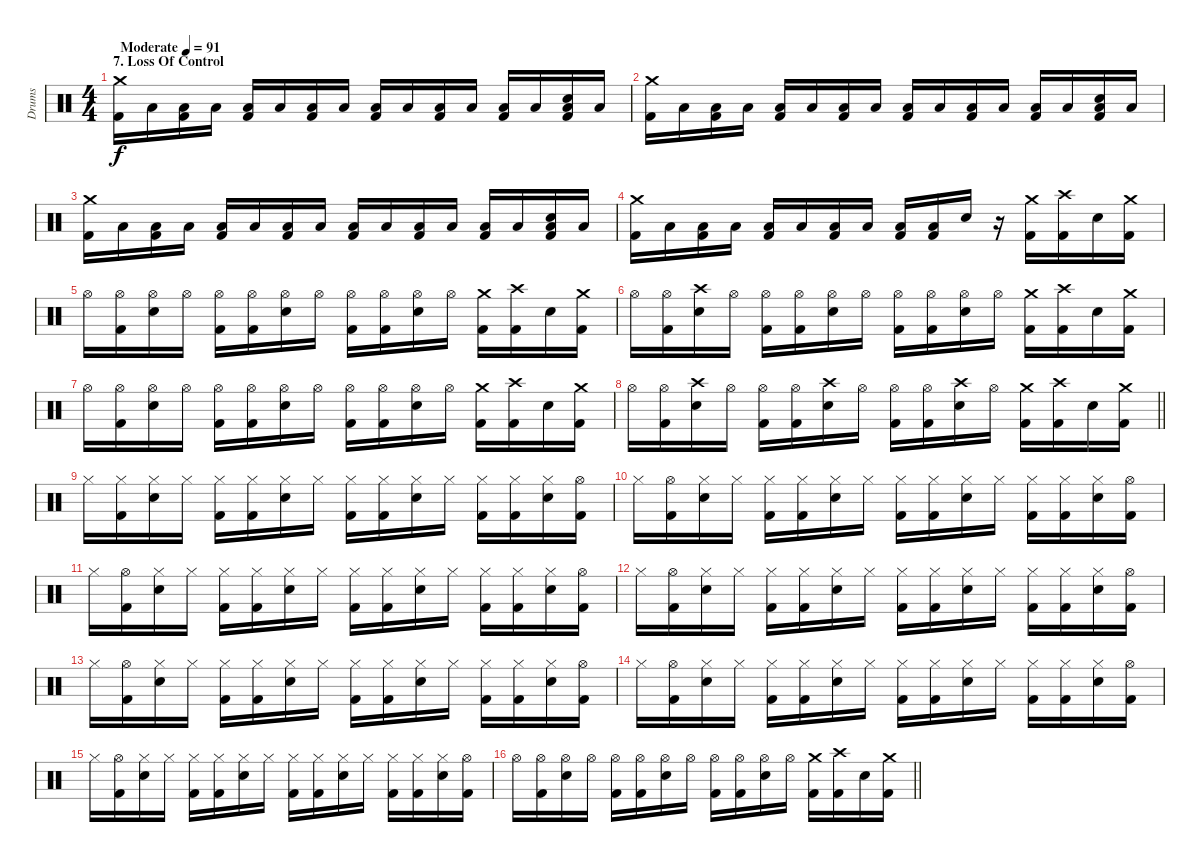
\track ("Drums" "Drums") {instrument percussion}
\staff {score}
\articulation defaults
\ts (4 4)
\section ("" "7. Loss Of Control")
\tempo (91 "Moderate")
\clef neutral
\ks c
("Crash medium (hit)" "Kick (hit) 2").16{dy f} "Low Floor Tom (hit)".16 ("Low Floor Tom (hit)" "Kick (hit) 2").16 "Low Floor Tom (hit)".16 ("Low Floor Tom (hit)" "Kick (hit) 2").16 "Low Floor Tom (hit)".16 ("Low Floor Tom (hit)" "Kick (hit) 2").16 "Low Floor Tom (hit)".16 ("Low Floor Tom (hit)" "Kick (hit) 2").16 "Low Floor Tom (hit)".16 ("Low Floor Tom (hit)" "Kick (hit) 2").16 "Low Floor Tom (hit)".16 ("Low Floor Tom (hit)" "Kick (hit) 2").16 "Low Floor Tom (hit)".16 ("Electric Snare (hit)" "Low Floor Tom (hit)" "Kick (hit) 2").16 "Low Floor Tom (hit)".16 |
("Crash medium (hit)" "Kick (hit) 2").16 "Low Floor Tom (hit)".16 ("Low Floor Tom (hit)" "Kick (hit) 2").16 "Low Floor Tom (hit)".16 ("Low Floor Tom (hit)" "Kick (hit) 2").16 "Low Floor Tom (hit)".16 ("Low Floor Tom (hit)" "Kick (hit) 2").16 "Low Floor Tom (hit)".16 ("Low Floor Tom (hit)" "Kick (hit) 2").16 "Low Floor Tom (hit)".16 ("Low Floor Tom (hit)" "Kick (hit) 2").16 "Low Floor Tom (hit)".16 ("Low Floor Tom (hit)" "Kick (hit) 2").16 "Low Floor Tom (hit)".16 ("Electric Snare (hit)" "Low Floor Tom (hit)" "Kick (hit) 2").16 "Low Floor Tom (hit)".16 |
("Crash medium (hit)" "Kick (hit) 2").16 "Low Floor Tom (hit)".16 ("Low Floor Tom (hit)" "Kick (hit) 2").16 "Low Floor Tom (hit)".16 ("Low Floor Tom (hit)" "Kick (hit) 2").16 "Low Floor Tom (hit)".16 ("Low Floor Tom (hit)" "Kick (hit) 2").16 "Low Floor Tom (hit)".16 ("Low Floor Tom (hit)" "Kick (hit) 2").16 "Low Floor Tom (hit)".16 ("Low Floor Tom (hit)" "Kick (hit) 2").16 "Low Floor Tom (hit)".16 ("Low Floor Tom (hit)" "Kick (hit) 2").16 "Low Floor Tom (hit)".16 ("Electric Snare (hit)" "Low Floor Tom (hit)" "Kick (hit) 2").16 "Low Floor Tom (hit)".16 |
("Crash medium (hit)" "Kick (hit) 2").16 "Low Floor Tom (hit)".16 ("Low Floor Tom (hit)" "Kick (hit) 2").16 "Low Floor Tom (hit)".16 ("Low Floor Tom (hit)" "Kick (hit) 2").16 "Low Floor Tom (hit)".16 ("Low Floor Tom (hit)" "Kick (hit) 2").16 "Low Floor Tom (hit)".16 ("Low Floor Tom (hit)" "Kick (hit) 2").16 ("Low Floor Tom (hit)" "Kick (hit) 2").16 "Electric Snare (hit)".16 r.16 ("Crash medium (hit)" "Kick (hit) 2").16 ("Crash high (hit)" "Kick (hit) 2").16 "Electric Snare (hit)".16 ("Crash medium (hit)" "Kick (hit) 2").16 |
"Hi-Hat (open)".16 ("Hi-Hat (open)" "Kick (hit) 2").16 ("Hi-Hat (open)" "Electric Snare (hit)").16 "Hi-Hat (open)".16 ("Hi-Hat (open)" "Kick (hit) 2").16 ("Hi-Hat (open)" "Kick (hit) 2").16 ("Hi-Hat (open)" "Electric Snare (hit)").16 "Hi-Hat (open)".16 ("Hi-Hat (open)" "Kick (hit) 2").16 ("Hi-Hat (open)" "Kick (hit) 2").16 ("Hi-Hat (open)" "Electric Snare (hit)").16 "Hi-Hat (open)".16 ("Crash medium (hit)" "Kick (hit) 2").16 ("Crash high (hit)" "Kick (hit) 2").16 "Electric Snare (hit)".16 ("Crash medium (hit)" "Kick (hit) 2").16 |
"Hi-Hat (open)".16 ("Hi-Hat (open)" "Kick (hit) 2").16 ("Crash high (hit)" "Electric Snare (hit)").16 "Hi-Hat (open)".16 ("Hi-Hat (open)" "Kick (hit) 2").16 ("Hi-Hat (open)" "Kick (hit) 2").16 ("Hi-Hat (open)" "Electric Snare (hit)").16 "Hi-Hat (open)".16 ("Hi-Hat (open)" "Kick (hit) 2").16 ("Hi-Hat (open)" "Kick (hit) 2").16 ("Hi-Hat (open)" "Electric Snare (hit)").16 "Hi-Hat (open)".16 ("Crash medium (hit)" "Kick (hit) 2").16 ("Crash high (hit)" "Kick (hit) 2").16 "Electric Snare (hit)".16 ("Crash medium (hit)" "Kick (hit) 2").16 |
"Hi-Hat (open)".16 ("Hi-Hat (open)" "Kick (hit) 2").16 ("Hi-Hat (open)" "Electric Snare (hit)").16 "Hi-Hat (open)".16 ("Hi-Hat (open)" "Kick (hit) 2").16 ("Hi-Hat (open)" "Kick (hit) 2").16 ("Hi-Hat (open)" "Electric Snare (hit)").16 "Hi-Hat (open)".16 ("Hi-Hat (open)" "Kick (hit) 2").16 ("Hi-Hat (open)" "Kick (hit) 2").16 ("Hi-Hat (open)" "Electric Snare (hit)").16 "Hi-Hat (open)".16 ("Crash medium (hit)" "Kick (hit) 2").16 ("Crash high (hit)" "Kick (hit) 2").16 "Electric Snare (hit)".16 ("Crash medium (hit)" "Kick (hit) 2").16 |
\barLineRight lightlight "Hi-Hat (open)".16
("Hi-Hat (open)" "Kick (hit) 2").16 ("Crash high (hit)" "Electric Snare (hit)").16 "Hi-Hat (open)".16 ("Hi-Hat (open)" "Kick (hit) 2").16 ("Hi-Hat (open)" "Kick (hit) 2").16 ("Crash high (hit)" "Electric Snare (hit)").16 "Hi-Hat (open)".16 ("Hi-Hat (open)" "Kick (hit) 2").16 ("Hi-Hat (open)" "Kick (hit) 2").16 ("Crash high (hit)" "Electric Snare (hit)").16 "Hi-Hat (open)".16 ("Crash medium (hit)" "Kick (hit) 2").16 ("Crash high (hit)" "Kick (hit) 2").16 "Electric Snare (hit)".16 ("Crash medium (hit)" "Kick (hit) 2").16 |
"Hi-Hat (closed)".16 ("Hi-Hat (closed)" "Kick (hit) 2").16 ("Hi-Hat (closed)" "Electric Snare (hit)").16 "Hi-Hat (closed)".16 ("Hi-Hat (closed)" "Kick (hit) 2").16 ("Hi-Hat (closed)" "Kick (hit) 2").16 ("Hi-Hat (closed)" "Electric Snare (hit)").16 "Hi-Hat (closed)".16 ("Hi-Hat (closed)" "Kick (hit) 2").16 ("Hi-Hat (closed)" "Kick (hit) 2").16 ("Hi-Hat (closed)" "Electric Snare (hit)").16 "Hi-Hat (closed)".16 ("Hi-Hat (closed)" "Kick (hit) 2").16 ("Hi-Hat (closed)" "Kick (hit) 2").16 ("Hi-Hat (closed)" "Electric Snare (hit)").16 ("Hi-Hat (open)" "Kick (hit) 2").16 |
"Hi-Hat (closed)".16 ("Hi-Hat (open)" "Kick (hit) 2").16 ("Hi-Hat (closed)" "Electric Snare (hit)").16 "Hi-Hat (closed)".16 ("Hi-Hat (closed)" "Kick (hit) 2").16 ("Hi-Hat (closed)" "Kick (hit) 2").16 ("Hi-Hat (closed)" "Electric Snare (hit)").16 "Hi-Hat (closed)".16 ("Hi-Hat (closed)" "Kick (hit) 2").16 ("Hi-Hat (closed)" "Kick (hit) 2").16 ("Hi-Hat (closed)" "Electric Snare (hit)").16 "Hi-Hat (closed)".16 ("Hi-Hat (closed)" "Kick (hit) 2").16 ("Hi-Hat (closed)" "Kick (hit) 2").16 ("Hi-Hat (closed)" "Electric Snare (hit)").16 ("Hi-Hat (open)" "Kick (hit) 2").16 |
"Hi-Hat (closed)".16 ("Hi-Hat (open)" "Kick (hit) 2").16 ("Hi-Hat (closed)" "Electric Snare (hit)").16 "Hi-Hat (closed)".16 ("Hi-Hat (closed)" "Kick (hit) 2").16 ("Hi-Hat (closed)" "Kick (hit) 2").16 ("Hi-Hat (closed)" "Electric Snare (hit)").16 "Hi-Hat (closed)".16 ("Hi-Hat (closed)" "Kick (hit) 2").16 ("Hi-Hat (closed)" "Kick (hit) 2").16 ("Hi-Hat (closed)" "Electric Snare (hit)").16 "Hi-Hat (closed)".16 ("Hi-Hat (closed)" "Kick (hit) 2").16 ("Hi-Hat (closed)" "Kick (hit) 2").16 ("Hi-Hat (closed)" "Electric Snare (hit)").16 ("Hi-Hat (open)" "Kick (hit) 2").16 |
"Hi-Hat (closed)".16 ("Hi-Hat (open)" "Kick (hit) 2").16 ("Hi-Hat (closed)" "Electric Snare (hit)").16 "Hi-Hat (closed)".16 ("Hi-Hat (closed)" "Kick (hit) 2").16 ("Hi-Hat (closed)" "Kick (hit) 2").16 ("Hi-Hat (closed)" "Electric Snare (hit)").16 "Hi-Hat (closed)".16 ("Hi-Hat (closed)" "Kick (hit) 2").16 ("Hi-Hat (closed)" "Kick (hit) 2").16 ("Hi-Hat (closed)" "Electric Snare (hit)").16 "Hi-Hat (closed)".16 ("Hi-Hat (closed)" "Kick (hit) 2").16 ("Hi-Hat (closed)" "Kick (hit) 2").16 ("Hi-Hat (closed)" "Electric Snare (hit)").16 ("Hi-Hat (open)" "Kick (hit) 2").16 |
"Hi-Hat (closed)".16 ("Hi-Hat (open)" "Kick (hit) 2").16 ("Hi-Hat (closed)" "Electric Snare (hit)").16 "Hi-Hat (closed)".16 ("Hi-Hat (closed)" "Kick (hit) 2").16 ("Hi-Hat (closed)" "Kick (hit) 2").16 ("Hi-Hat (closed)" "Electric Snare (hit)").16 "Hi-Hat (closed)".16 ("Hi-Hat (closed)" "Kick (hit) 2").16 ("Hi-Hat (closed)" "Kick (hit) 2").16 ("Hi-Hat (closed)" "Electric Snare (hit)").16 "Hi-Hat (closed)".16 ("Hi-Hat (closed)" "Kick (hit) 2").16 ("Hi-Hat (closed)" "Kick (hit) 2").16 ("Hi-Hat (closed)" "Electric Snare (hit)").16 ("Hi-Hat (open)" "Kick (hit) 2").16 |
"Hi-Hat (closed)".16 ("Hi-Hat (open)" "Kick (hit) 2").16 ("Hi-Hat (closed)" "Electric Snare (hit)").16 "Hi-Hat (closed)".16 ("Hi-Hat (closed)" "Kick (hit) 2").16 ("Hi-Hat (closed)" "Kick (hit) 2").16 ("Hi-Hat (closed)" "Electric Snare (hit)").16 "Hi-Hat (closed)".16 ("Hi-Hat (closed)" "Kick (hit) 2").16 ("Hi-Hat (closed)" "Kick (hit) 2").16 ("Hi-Hat (closed)" "Electric Snare (hit)").16 "Hi-Hat (closed)".16 ("Hi-Hat (closed)" "Kick (hit) 2").16 ("Hi-Hat (closed)" "Kick (hit) 2").16 ("Hi-Hat (closed)" "Electric Snare (hit)").16 ("Hi-Hat (open)" "Kick (hit) 2").16 |
"Hi-Hat (closed)".16 ("Hi-Hat (open)" "Kick (hit) 2").16 ("Hi-Hat (closed)" "Electric Snare (hit)").16 "Hi-Hat (closed)".16 ("Hi-Hat (closed)" "Kick (hit) 2").16 ("Hi-Hat (closed)" "Kick (hit) 2").16 ("Hi-Hat (closed)" "Electric Snare (hit)").16 "Hi-Hat (closed)".16 ("Hi-Hat (closed)" "Kick (hit) 2").16 ("Hi-Hat (closed)" "Kick (hit) 2").16 ("Hi-Hat (closed)" "Electric Snare (hit)").16 "Hi-Hat (closed)".16 ("Hi-Hat (closed)" "Kick (hit) 2").16 ("Hi-Hat (closed)" "Kick (hit) 2").16 ("Hi-Hat (closed)" "Electric Snare (hit)").16 ("Hi-Hat (open)" "Kick (hit) 2").16 |
\barLineRight lightlight "Hi-Hat (open)".16
("Hi-Hat (open)" "Kick (hit) 2").16 ("Hi-Hat (open)" "Electric Snare (hit)").16 "Hi-Hat (open)".16 ("Hi-Hat (open)" "Kick (hit) 2").16 ("Hi-Hat (open)" "Kick (hit) 2").16 ("Hi-Hat (open)" "Electric Snare (hit)").16 "Hi-Hat (open)".16 ("Hi-Hat (open)" "Kick (hit) 2").16 ("Hi-Hat (open)" "Kick (hit) 2").16 ("Hi-Hat (open)" "Electric Snare (hit)").16 "Hi-Hat (open)".16 ("Crash medium (hit)" "Kick (hit) 2").16 ("Crash high (hit)" "Kick (hit) 2").16 "Electric Snare (hit)".16 ("Crash medium (hit)" "Kick (hit) 2").16
